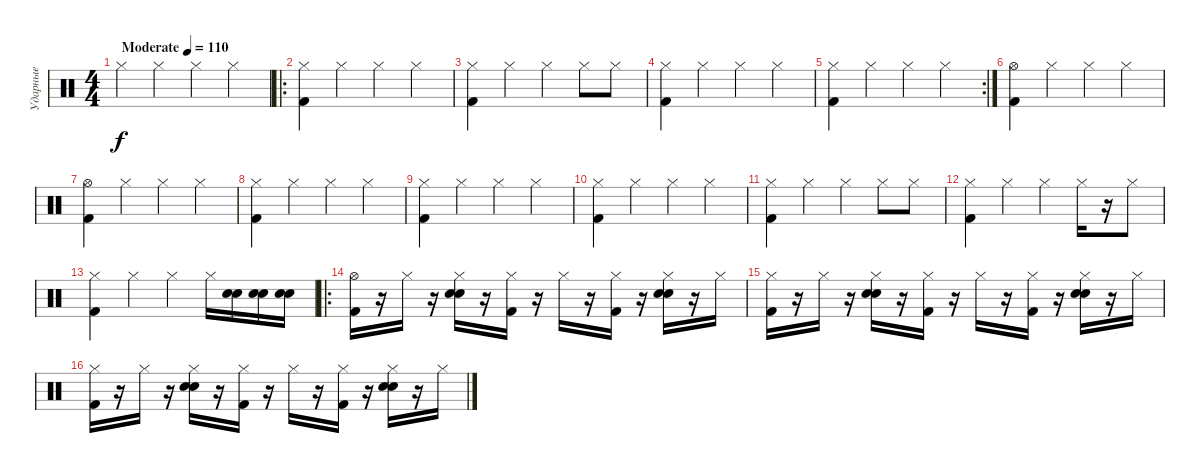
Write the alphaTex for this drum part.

\track ("Ударные" "Ударные") {instrument percussion}
\staff {score}
\articulation defaults
\ts (4 4)
\tempo (110 "Moderate")
\clef neutral
\ks c "Hi-Hat (closed)".4{dy f} "Hi-Hat (closed)".4 "Hi-Hat (closed)".4 "Hi-Hat (closed)".4
|
\ro
("Hi-Hat (closed)" "Kick (hit) 2").4 "Hi-Hat (closed)".4 "Hi-Hat (closed)".4 "Hi-Hat (closed)".4 |
("Hi-Hat (closed)" "Kick (hit) 2").4 "Hi-Hat (closed)".4 "Hi-Hat (closed)".4 "Hi-Hat (closed)".8 "Hi-Hat (closed)".8 |
("Hi-Hat (closed)" "Kick (hit) 2").4 "Hi-Hat (closed)".4 "Hi-Hat (closed)".4 "Hi-Hat (closed)".4 |
\rc 2
("Hi-Hat (closed)" "Kick (hit) 2").4 "Hi-Hat (closed)".4 "Hi-Hat (closed)".4 "Hi-Hat (closed)".4 |
("Hi-Hat (open)" "Kick (hit) 2").4 "Hi-Hat (closed)".4 "Hi-Hat (closed)".4 "Hi-Hat (closed)".4 |
("Hi-Hat (open)" "Kick (hit) 2").4 "Hi-Hat (closed)".4 "Hi-Hat (closed)".4 "Hi-Hat (closed)".4 |
("Hi-Hat (closed)" "Kick (hit) 2").4 "Hi-Hat (closed)".4 "Hi-Hat (closed)".4 "Hi-Hat (closed)".4 |
("Hi-Hat (closed)" "Kick (hit) 2").4 "Hi-Hat (closed)".4 "Hi-Hat (closed)".4 "Hi-Hat (closed)".4 |
("Hi-Hat (closed)" "Kick (hit) 2").4 "Hi-Hat (closed)".4 "Hi-Hat (closed)".4 "Hi-Hat (closed)".4 |
("Hi-Hat (closed)" "Kick (hit) 2").4 "Hi-Hat (closed)".4 "Hi-Hat (closed)".4 "Hi-Hat (closed)".8 "Hi-Hat (closed)".8 |
("Hi-Hat (closed)" "Kick (hit) 2").4 "Hi-Hat (closed)".4 "Hi-Hat (closed)".4 "Hi-Hat (closed)".16 r.16 "Hi-Hat (closed)".8 |
("Hi-Hat (closed)" "Kick (hit) 2").4 "Hi-Hat (closed)".4 "Hi-Hat (closed)".4 "Hi-Hat (closed)".16 ("Electric Snare (hit)" "Snare (hit) 2").16 ("Electric Snare (hit)" "Snare (hit) 2").16 ("Electric Snare (hit)" "Snare (hit) 2").16 |
\ro
("Hi-Hat (open)" "Kick (hit) 2").16 r.16 "Hi-Hat (closed)".16 r.16 ("Hi-Hat (closed)" "Electric Snare (hit)" "Snare (hit) 2").16 r.16 ("Hi-Hat (closed)" "Kick (hit) 2").16 r.16 "Hi-Hat (closed)".16 r.16 ("Hi-Hat (closed)" "Kick (hit) 2").16 r.16 ("Hi-Hat (closed)" "Electric Snare (hit)" "Snare (hit) 2").16 r.16 "Hi-Hat (closed)".16 |
("Hi-Hat (closed)" "Kick (hit) 2").16 r.16 "Hi-Hat (closed)".16 r.16 ("Hi-Hat (closed)" "Electric Snare (hit)" "Snare (hit) 2").16 r.16 ("Hi-Hat (closed)" "Kick (hit) 2").16 r.16 "Hi-Hat (closed)".16 r.16 ("Hi-Hat (closed)" "Kick (hit) 2").16 r.16 ("Hi-Hat (closed)" "Electric Snare (hit)" "Snare (hit) 2").16 r.16 "Hi-Hat (closed)".16 |
("Hi-Hat (closed)" "Kick (hit) 2").16 r.16 "Hi-Hat (closed)".16 r.16 ("Hi-Hat (closed)" "Electric Snare (hit)" "Snare (hit) 2").16 r.16 ("Hi-Hat (closed)" "Kick (hit) 2").16 r.16 "Hi-Hat (closed)".16 r.16 ("Hi-Hat (closed)" "Kick (hit) 2").16 r.16 ("Hi-Hat (closed)" "Electric Snare (hit)" "Snare (hit) 2").16 r.16 "Hi-Hat (closed)".16
